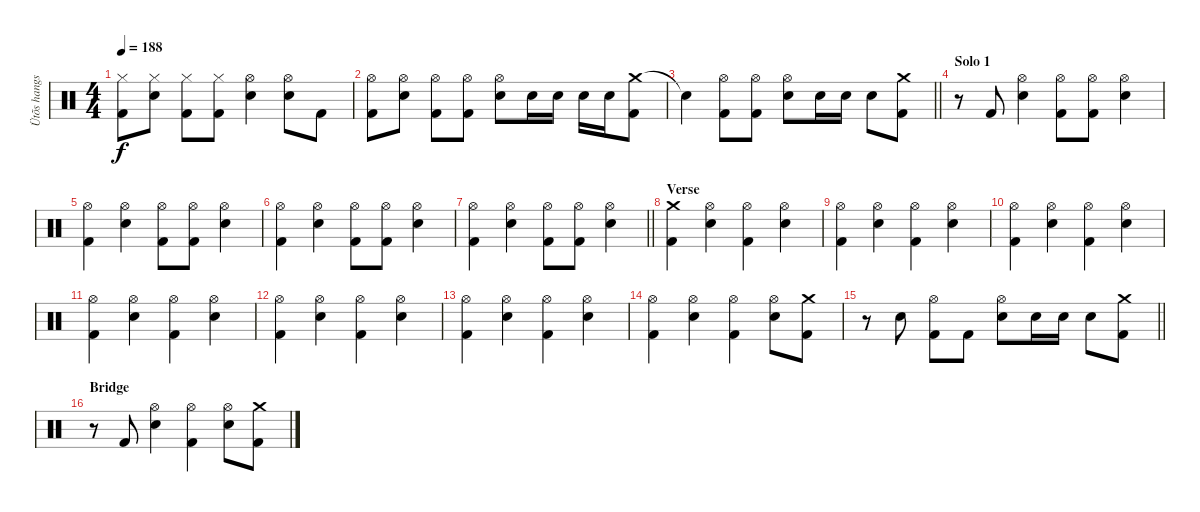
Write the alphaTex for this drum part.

\track ("Ütõs hangszer" "Ütõs hangs") {instrument percussion}
\staff {score}
\articulation defaults
\ts (4 4)
\tempo 188
\clef neutral
\ks c
("Hi-Hat (closed)" "Kick (hit) 2").8{dy f} ("Hi-Hat (closed)" "Electric Snare (hit)").8 ("Hi-Hat (closed)" "Kick (hit) 2").8 ("Hi-Hat (closed)" "Kick (hit) 2").8 ("Hi-Hat (open)" "Electric Snare (hit)").4 ("Hi-Hat (open)" "Electric Snare (hit)").8 "Kick (hit) 2".8 |
("Hi-Hat (open)" "Kick (hit) 2").8 ("Hi-Hat (open)" "Electric Snare (hit)").8 ("Hi-Hat (open)" "Kick (hit) 2").8 ("Hi-Hat (open)" "Kick (hit) 2").8 ("Hi-Hat (open)" "Electric Snare (hit)").8 "Electric Snare (hit)".16 "Electric Snare (hit)".16 "Electric Snare (hit)".16 "Electric Snare (hit)".16 ("Crash medium (hit)" "Kick (hit) 2").8 |
\barLineRight lightlight "Snare (hit)"{t}.4
("Hi-Hat (open)" "Kick (hit) 2").8 ("Hi-Hat (open)" "Kick (hit) 2").8 ("Hi-Hat (open)" "Electric Snare (hit)").8 "Electric Snare (hit)".16 "Electric Snare (hit)".16 "Electric Snare (hit)".8 ("Crash medium (hit)" "Kick (hit) 2").8 |
\section ("" "Solo 1")
r.8 "Kick (hit) 2".8 ("Hi-Hat (open)" "Electric Snare (hit)").4 ("Hi-Hat (open)" "Kick (hit) 2").8 ("Hi-Hat (open)" "Kick (hit) 2").8 ("Hi-Hat (open)" "Electric Snare (hit)").4 |
("Hi-Hat (open)" "Kick (hit) 2").4 ("Hi-Hat (open)" "Electric Snare (hit)").4 ("Hi-Hat (open)" "Kick (hit) 2").8 ("Hi-Hat (open)" "Kick (hit) 2").8 ("Hi-Hat (open)" "Electric Snare (hit)").4 |
("Hi-Hat (open)" "Kick (hit) 2").4 ("Hi-Hat (open)" "Electric Snare (hit)").4 ("Hi-Hat (open)" "Kick (hit) 2").8 ("Hi-Hat (open)" "Kick (hit) 2").8 ("Hi-Hat (open)" "Electric Snare (hit)").4 |
\barLineRight lightlight
("Hi-Hat (open)" "Kick (hit) 2").4 ("Hi-Hat (open)" "Electric Snare (hit)").4 ("Hi-Hat (open)" "Kick (hit) 2").8 ("Hi-Hat (open)" "Kick (hit) 2").8 ("Hi-Hat (open)" "Electric Snare (hit)").4 |
\section ("" "Verse")
("Crash medium (hit)" "Kick (hit) 2").4 ("Hi-Hat (open)" "Electric Snare (hit)").4 ("Hi-Hat (open)" "Kick (hit) 2").4 ("Hi-Hat (open)" "Electric Snare (hit)").4 |
("Hi-Hat (open)" "Kick (hit) 2").4 ("Hi-Hat (open)" "Electric Snare (hit)").4 ("Hi-Hat (open)" "Kick (hit) 2").4 ("Hi-Hat (open)" "Electric Snare (hit)").4 |
("Hi-Hat (open)" "Kick (hit) 2").4 ("Hi-Hat (open)" "Electric Snare (hit)").4 ("Hi-Hat (open)" "Kick (hit) 2").4 ("Hi-Hat (open)" "Electric Snare (hit)").4 |
("Hi-Hat (open)" "Kick (hit) 2").4 ("Hi-Hat (open)" "Electric Snare (hit)").4 ("Hi-Hat (open)" "Kick (hit) 2").4 ("Hi-Hat (open)" "Electric Snare (hit)").4 |
("Hi-Hat (open)" "Kick (hit) 2").4 ("Hi-Hat (open)" "Electric Snare (hit)").4 ("Hi-Hat (open)" "Kick (hit) 2").4 ("Hi-Hat (open)" "Electric Snare (hit)").4 |
("Hi-Hat (open)" "Kick (hit) 2").4 ("Hi-Hat (open)" "Electric Snare (hit)").4 ("Hi-Hat (open)" "Kick (hit) 2").4 ("Hi-Hat (open)" "Electric Snare (hit)").4 |
("Hi-Hat (open)" "Kick (hit) 2").4 ("Hi-Hat (open)" "Electric Snare (hit)").4 ("Hi-Hat (open)" "Kick (hit) 2").4 ("Hi-Hat (open)" "Electric Snare (hit)").8 ("Crash medium (hit)" "Kick (hit) 2").8 |
\barLineRight lightlight
r.8 "Electric Snare (hit)".8 ("Hi-Hat (open)" "Kick (hit) 2").8 "Kick (hit) 2".8 ("Hi-Hat (open)" "Electric Snare (hit)").8 "Electric Snare (hit)".16 "Electric Snare (hit)".16 "Electric Snare (hit)".8 ("Crash medium (hit)" "Kick (hit) 2").8 |
\section ("" "Bridge")
r.8 "Kick (hit) 2".8 ("Hi-Hat (open)" "Electric Snare (hit)").4 ("Hi-Hat (open)" "Kick (hit) 2").4 ("Hi-Hat (open)" "Electric Snare (hit)").8 ("Crash medium (hit)" "Kick (hit) 2").8
